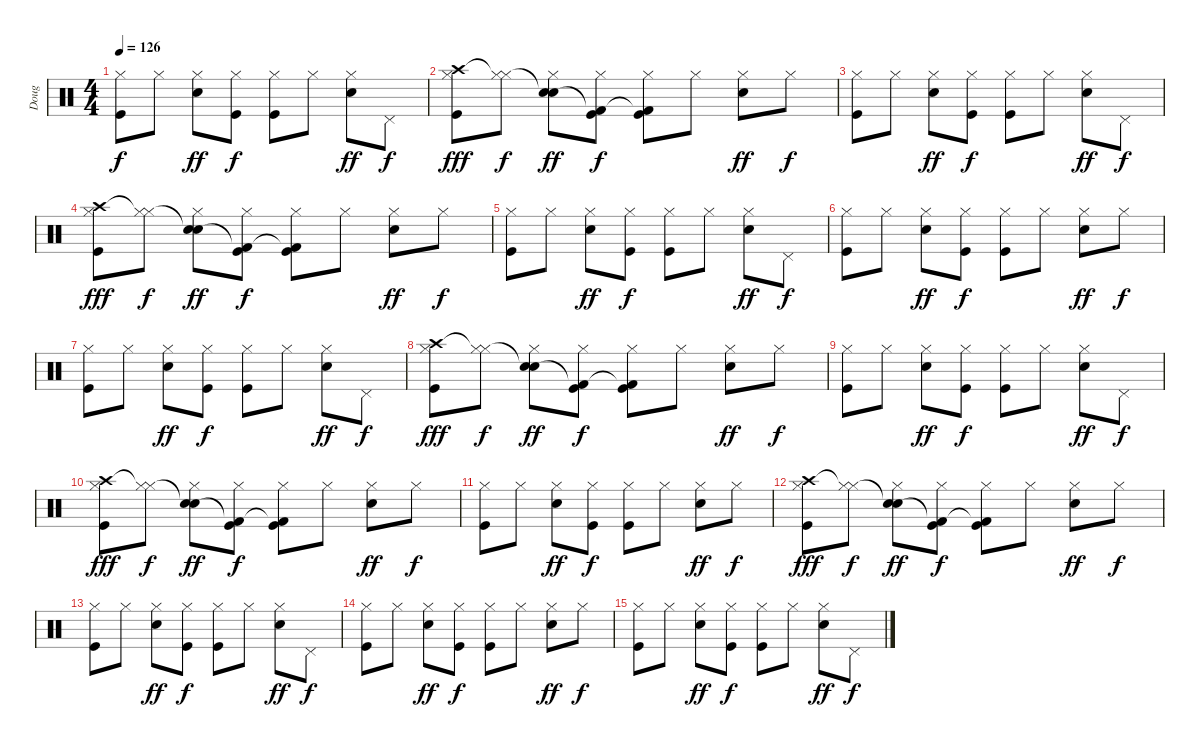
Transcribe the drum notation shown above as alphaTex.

\track ("Doug" "Doug") {instrument percussion}
\staff {score}
\articulation defaults
\ts (4 4)
\tempo 126
\clef neutral
\ks c
("Hi-Hat (closed)" "Kick (hit)").8{dy f} "Hi-Hat (closed)".8 ("Hi-Hat (closed)" "Snare (hit) 2").8{dy ff} ("Hi-Hat (closed)" "Kick (hit)").8{dy f} ("Hi-Hat (closed)" "Kick (hit)").8 "Hi-Hat (closed)".8 ("Hi-Hat (closed)" "Snare (hit) 2").8{dy ff} "Pedal Hi-Hat (hit)".8{dy f} |
("Crash high (hit)" "Hi-Hat (closed)" "Kick (hit)").8{dy fff} ("Hi-Hat (closed)"{t} "Hi-Hat (closed)").8{dy f} ("Snare (hit) 2"{t} "Hi-Hat (closed)" "Snare (hit) 2").8{dy ff} ("Kick (hit) 2"{t} "Hi-Hat (closed)" "Kick (hit)").8{dy f} ("Kick (hit) 2"{t} "Hi-Hat (closed)" "Kick (hit)").8 "Hi-Hat (closed)".8 ("Hi-Hat (closed)" "Snare (hit) 2").8{dy ff} "Hi-Hat (closed)".8{dy f} |
("Hi-Hat (closed)" "Kick (hit)").8 "Hi-Hat (closed)".8 ("Hi-Hat (closed)" "Snare (hit) 2").8{dy ff} ("Hi-Hat (closed)" "Kick (hit)").8{dy f} ("Hi-Hat (closed)" "Kick (hit)").8 "Hi-Hat (closed)".8 ("Hi-Hat (closed)" "Snare (hit) 2").8{dy ff} "Pedal Hi-Hat (hit)".8{dy f} |
("Crash high (hit)" "Hi-Hat (closed)" "Kick (hit)").8{dy fff} ("Hi-Hat (closed)"{t} "Hi-Hat (closed)").8{dy f} ("Snare (hit) 2"{t} "Hi-Hat (closed)" "Snare (hit) 2").8{dy ff} ("Kick (hit) 2"{t} "Hi-Hat (closed)" "Kick (hit)").8{dy f} ("Kick (hit) 2"{t} "Hi-Hat (closed)" "Kick (hit)").8 "Hi-Hat (closed)".8 ("Hi-Hat (closed)" "Snare (hit) 2").8{dy ff} "Hi-Hat (closed)".8{dy f} |
("Hi-Hat (closed)" "Kick (hit)").8 "Hi-Hat (closed)".8 ("Hi-Hat (closed)" "Snare (hit) 2").8{dy ff} ("Hi-Hat (closed)" "Kick (hit)").8{dy f} ("Hi-Hat (closed)" "Kick (hit)").8 "Hi-Hat (closed)".8 ("Hi-Hat (closed)" "Snare (hit) 2").8{dy ff} "Pedal Hi-Hat (hit)".8{dy f} |
("Hi-Hat (closed)" "Kick (hit)").8 "Hi-Hat (closed)".8 ("Hi-Hat (closed)" "Snare (hit) 2").8{dy ff} ("Hi-Hat (closed)" "Kick (hit)").8{dy f} ("Hi-Hat (closed)" "Kick (hit)").8 "Hi-Hat (closed)".8 ("Hi-Hat (closed)" "Snare (hit) 2").8{dy ff} "Hi-Hat (closed)".8{dy f} |
("Hi-Hat (closed)" "Kick (hit)").8 "Hi-Hat (closed)".8 ("Hi-Hat (closed)" "Snare (hit) 2").8{dy ff} ("Hi-Hat (closed)" "Kick (hit)").8{dy f} ("Hi-Hat (closed)" "Kick (hit)").8 "Hi-Hat (closed)".8 ("Hi-Hat (closed)" "Snare (hit) 2").8{dy ff} "Pedal Hi-Hat (hit)".8{dy f} |
("Crash high (hit)" "Hi-Hat (closed)" "Kick (hit)").8{dy fff} ("Hi-Hat (closed)"{t} "Hi-Hat (closed)").8{dy f} ("Snare (hit) 2"{t} "Hi-Hat (closed)" "Snare (hit) 2").8{dy ff} ("Kick (hit) 2"{t} "Hi-Hat (closed)" "Kick (hit)").8{dy f} ("Kick (hit) 2"{t} "Hi-Hat (closed)" "Kick (hit)").8 "Hi-Hat (closed)".8 ("Hi-Hat (closed)" "Snare (hit) 2").8{dy ff} "Hi-Hat (closed)".8{dy f} |
("Hi-Hat (closed)" "Kick (hit)").8 "Hi-Hat (closed)".8 ("Hi-Hat (closed)" "Snare (hit) 2").8{dy ff} ("Hi-Hat (closed)" "Kick (hit)").8{dy f} ("Hi-Hat (closed)" "Kick (hit)").8 "Hi-Hat (closed)".8 ("Hi-Hat (closed)" "Snare (hit) 2").8{dy ff} "Pedal Hi-Hat (hit)".8{dy f} |
("Crash high (hit)" "Hi-Hat (closed)" "Kick (hit)").8{dy fff} ("Hi-Hat (closed)"{t} "Hi-Hat (closed)").8{dy f} ("Snare (hit) 2"{t} "Hi-Hat (closed)" "Snare (hit) 2").8{dy ff} ("Kick (hit) 2"{t} "Hi-Hat (closed)" "Kick (hit)").8{dy f} ("Kick (hit) 2"{t} "Hi-Hat (closed)" "Kick (hit)").8 "Hi-Hat (closed)".8 ("Hi-Hat (closed)" "Snare (hit) 2").8{dy ff} "Hi-Hat (closed)".8{dy f} |
("Hi-Hat (closed)" "Kick (hit)").8 "Hi-Hat (closed)".8 ("Hi-Hat (closed)" "Snare (hit) 2").8{dy ff} ("Hi-Hat (closed)" "Kick (hit)").8{dy f} ("Hi-Hat (closed)" "Kick (hit)").8 "Hi-Hat (closed)".8 ("Hi-Hat (closed)" "Snare (hit) 2").8{dy ff} "Hi-Hat (closed)".8{dy f} |
("Crash high (hit)" "Hi-Hat (closed)" "Kick (hit)").8{dy fff} ("Hi-Hat (closed)"{t} "Hi-Hat (closed)").8{dy f} ("Snare (hit) 2"{t} "Hi-Hat (closed)" "Snare (hit) 2").8{dy ff} ("Kick (hit) 2"{t} "Hi-Hat (closed)" "Kick (hit)").8{dy f} ("Kick (hit) 2"{t} "Hi-Hat (closed)" "Kick (hit)").8 "Hi-Hat (closed)".8 ("Hi-Hat (closed)" "Snare (hit) 2").8{dy ff} "Hi-Hat (closed)".8{dy f} |
("Hi-Hat (closed)" "Kick (hit)").8 "Hi-Hat (closed)".8 ("Hi-Hat (closed)" "Snare (hit) 2").8{dy ff} ("Hi-Hat (closed)" "Kick (hit)").8{dy f} ("Hi-Hat (closed)" "Kick (hit)").8 "Hi-Hat (closed)".8 ("Hi-Hat (closed)" "Snare (hit) 2").8{dy ff} "Pedal Hi-Hat (hit)".8{dy f} |
("Hi-Hat (closed)" "Kick (hit)").8 "Hi-Hat (closed)".8 ("Hi-Hat (closed)" "Snare (hit) 2").8{dy ff} ("Hi-Hat (closed)" "Kick (hit)").8{dy f} ("Hi-Hat (closed)" "Kick (hit)").8 "Hi-Hat (closed)".8 ("Hi-Hat (closed)" "Snare (hit) 2").8{dy ff} "Hi-Hat (closed)".8{dy f} |
("Hi-Hat (closed)" "Kick (hit)").8 "Hi-Hat (closed)".8 ("Hi-Hat (closed)" "Snare (hit) 2").8{dy ff} ("Hi-Hat (closed)" "Kick (hit)").8{dy f} ("Hi-Hat (closed)" "Kick (hit)").8 "Hi-Hat (closed)".8 ("Hi-Hat (closed)" "Snare (hit) 2").8{dy ff} "Pedal Hi-Hat (hit)".8{dy f}
